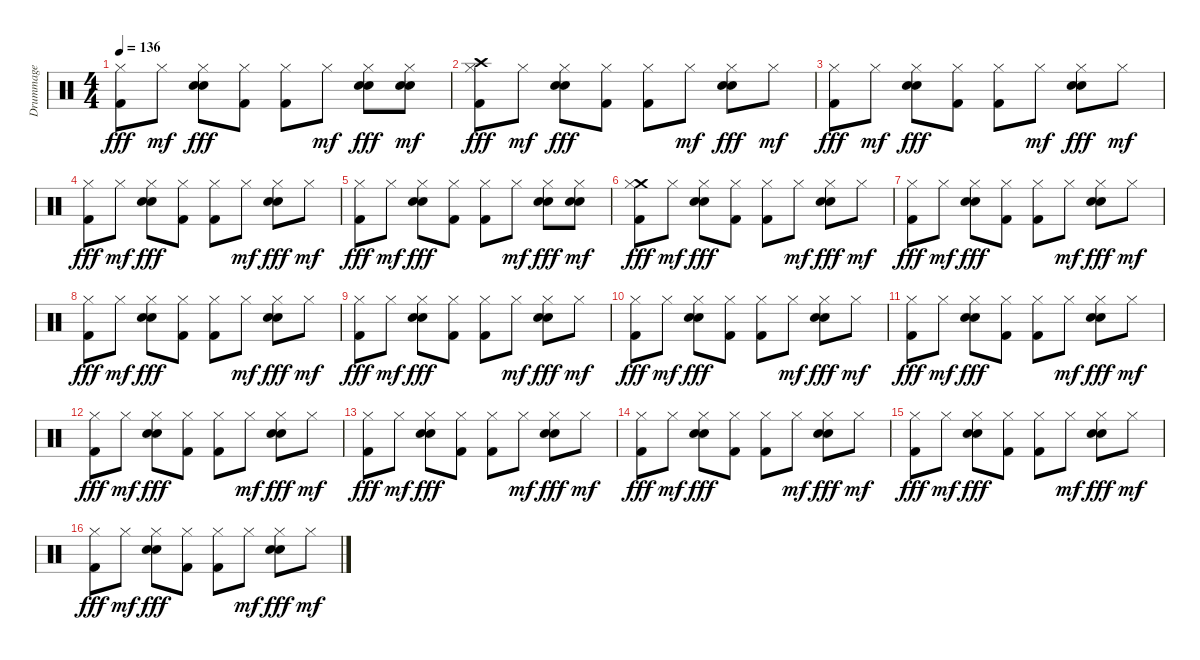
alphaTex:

\track ("Drummage" "Drummage") {instrument percussion}
\staff {score}
\articulation defaults
\ts (4 4)
\tempo 136
\clef neutral
\ks c
("Hi-Hat (closed)" "Kick (hit) 2").8{dy fff} "Hi-Hat (closed)".8{dy mf} ("Hi-Hat (closed)" "Snare (hit) 2" "Electric Snare (hit)").8{dy fff} ("Hi-Hat (closed)" "Kick (hit) 2").8 ("Hi-Hat (closed)" "Kick (hit) 2").8 "Hi-Hat (closed)".8{dy mf} ("Hi-Hat (closed)" "Electric Snare (hit)" "Snare (hit) 2").8{dy fff} ("Snare (hit) 2" "Electric Snare (hit)" "Hi-Hat (closed)").8{dy mf} |
("Crash high (hit)" "Hi-Hat (closed)" "Kick (hit) 2").8{dy fff} "Hi-Hat (closed)".8{dy mf} ("Hi-Hat (closed)" "Snare (hit) 2" "Electric Snare (hit)").8{dy fff} ("Hi-Hat (closed)" "Kick (hit) 2").8 ("Hi-Hat (closed)" "Kick (hit) 2").8 "Hi-Hat (closed)".8{dy mf} ("Hi-Hat (closed)" "Electric Snare (hit)" "Snare (hit) 2").8{dy fff} "Hi-Hat (closed)".8{dy mf} |
("Hi-Hat (closed)" "Kick (hit) 2").8{dy fff} "Hi-Hat (closed)".8{dy mf} ("Hi-Hat (closed)" "Snare (hit) 2" "Electric Snare (hit)").8{dy fff} ("Hi-Hat (closed)" "Kick (hit) 2").8 ("Hi-Hat (closed)" "Kick (hit) 2").8 "Hi-Hat (closed)".8{dy mf} ("Hi-Hat (closed)" "Electric Snare (hit)" "Snare (hit) 2").8{dy fff} "Hi-Hat (closed)".8{dy mf} |
("Hi-Hat (closed)" "Kick (hit) 2").8{dy fff} "Hi-Hat (closed)".8{dy mf} ("Hi-Hat (closed)" "Snare (hit) 2" "Electric Snare (hit)").8{dy fff} ("Hi-Hat (closed)" "Kick (hit) 2").8 ("Hi-Hat (closed)" "Kick (hit) 2").8 "Hi-Hat (closed)".8{dy mf} ("Hi-Hat (closed)" "Electric Snare (hit)" "Snare (hit) 2").8{dy fff} "Hi-Hat (closed)".8{dy mf} |
("Hi-Hat (closed)" "Kick (hit) 2").8{dy fff} "Hi-Hat (closed)".8{dy mf} ("Hi-Hat (closed)" "Snare (hit) 2" "Electric Snare (hit)").8{dy fff} ("Hi-Hat (closed)" "Kick (hit) 2").8 ("Hi-Hat (closed)" "Kick (hit) 2").8 "Hi-Hat (closed)".8{dy mf} ("Hi-Hat (closed)" "Electric Snare (hit)" "Snare (hit) 2").8{dy fff} ("Snare (hit) 2" "Electric Snare (hit)" "Hi-Hat (closed)").8{dy mf} |
("Crash medium (hit)" "Hi-Hat (closed)" "Kick (hit) 2").8{dy fff} "Hi-Hat (closed)".8{dy mf} ("Hi-Hat (closed)" "Snare (hit) 2" "Electric Snare (hit)").8{dy fff} ("Hi-Hat (closed)" "Kick (hit) 2").8 ("Hi-Hat (closed)" "Kick (hit) 2").8 "Hi-Hat (closed)".8{dy mf} ("Hi-Hat (closed)" "Electric Snare (hit)" "Snare (hit) 2").8{dy fff} "Hi-Hat (closed)".8{dy mf} |
("Hi-Hat (closed)" "Kick (hit) 2").8{dy fff} "Hi-Hat (closed)".8{dy mf} ("Hi-Hat (closed)" "Snare (hit) 2" "Electric Snare (hit)").8{dy fff} ("Hi-Hat (closed)" "Kick (hit) 2").8 ("Hi-Hat (closed)" "Kick (hit) 2").8 "Hi-Hat (closed)".8{dy mf} ("Hi-Hat (closed)" "Electric Snare (hit)" "Snare (hit) 2").8{dy fff} "Hi-Hat (closed)".8{dy mf} |
("Hi-Hat (closed)" "Kick (hit) 2").8{dy fff} "Hi-Hat (closed)".8{dy mf} ("Hi-Hat (closed)" "Snare (hit) 2" "Electric Snare (hit)").8{dy fff} ("Hi-Hat (closed)" "Kick (hit) 2").8 ("Hi-Hat (closed)" "Kick (hit) 2").8 "Hi-Hat (closed)".8{dy mf} ("Hi-Hat (closed)" "Electric Snare (hit)" "Snare (hit) 2").8{dy fff} "Hi-Hat (closed)".8{dy mf} |
("Hi-Hat (closed)" "Kick (hit) 2").8{dy fff} "Hi-Hat (closed)".8{dy mf} ("Hi-Hat (closed)" "Snare (hit) 2" "Electric Snare (hit)").8{dy fff} ("Hi-Hat (closed)" "Kick (hit) 2").8 ("Hi-Hat (closed)" "Kick (hit) 2").8 "Hi-Hat (closed)".8{dy mf} ("Hi-Hat (closed)" "Electric Snare (hit)" "Snare (hit) 2").8{dy fff} "Hi-Hat (closed)".8{dy mf} |
("Hi-Hat (closed)" "Kick (hit) 2").8{dy fff} "Hi-Hat (closed)".8{dy mf} ("Hi-Hat (closed)" "Snare (hit) 2" "Electric Snare (hit)").8{dy fff} ("Hi-Hat (closed)" "Kick (hit) 2").8 ("Hi-Hat (closed)" "Kick (hit) 2").8 "Hi-Hat (closed)".8{dy mf} ("Hi-Hat (closed)" "Electric Snare (hit)" "Snare (hit) 2").8{dy fff} "Hi-Hat (closed)".8{dy mf} |
("Hi-Hat (closed)" "Kick (hit) 2").8{dy fff} "Hi-Hat (closed)".8{dy mf} ("Hi-Hat (closed)" "Snare (hit) 2" "Electric Snare (hit)").8{dy fff} ("Hi-Hat (closed)" "Kick (hit) 2").8 ("Hi-Hat (closed)" "Kick (hit) 2").8 "Hi-Hat (closed)".8{dy mf} ("Hi-Hat (closed)" "Electric Snare (hit)" "Snare (hit) 2").8{dy fff} "Hi-Hat (closed)".8{dy mf} |
("Hi-Hat (closed)" "Kick (hit) 2").8{dy fff} "Hi-Hat (closed)".8{dy mf} ("Hi-Hat (closed)" "Snare (hit) 2" "Electric Snare (hit)").8{dy fff} ("Hi-Hat (closed)" "Kick (hit) 2").8 ("Hi-Hat (closed)" "Kick (hit) 2").8 "Hi-Hat (closed)".8{dy mf} ("Hi-Hat (closed)" "Electric Snare (hit)" "Snare (hit) 2").8{dy fff} "Hi-Hat (closed)".8{dy mf} |
("Hi-Hat (closed)" "Kick (hit) 2").8{dy fff} "Hi-Hat (closed)".8{dy mf} ("Hi-Hat (closed)" "Snare (hit) 2" "Electric Snare (hit)").8{dy fff} ("Hi-Hat (closed)" "Kick (hit) 2").8 ("Hi-Hat (closed)" "Kick (hit) 2").8 "Hi-Hat (closed)".8{dy mf} ("Hi-Hat (closed)" "Electric Snare (hit)" "Snare (hit) 2").8{dy fff} "Hi-Hat (closed)".8{dy mf} |
("Hi-Hat (closed)" "Kick (hit) 2").8{dy fff} "Hi-Hat (closed)".8{dy mf} ("Hi-Hat (closed)" "Snare (hit) 2" "Electric Snare (hit)").8{dy fff} ("Hi-Hat (closed)" "Kick (hit) 2").8 ("Hi-Hat (closed)" "Kick (hit) 2").8 "Hi-Hat (closed)".8{dy mf} ("Hi-Hat (closed)" "Electric Snare (hit)" "Snare (hit) 2").8{dy fff} "Hi-Hat (closed)".8{dy mf} |
("Hi-Hat (closed)" "Kick (hit) 2").8{dy fff} "Hi-Hat (closed)".8{dy mf} ("Hi-Hat (closed)" "Snare (hit) 2" "Electric Snare (hit)").8{dy fff} ("Hi-Hat (closed)" "Kick (hit) 2").8 ("Hi-Hat (closed)" "Kick (hit) 2").8 "Hi-Hat (closed)".8{dy mf} ("Hi-Hat (closed)" "Electric Snare (hit)" "Snare (hit) 2").8{dy fff} "Hi-Hat (closed)".8{dy mf} |
("Hi-Hat (closed)" "Kick (hit) 2").8{dy fff} "Hi-Hat (closed)".8{dy mf} ("Hi-Hat (closed)" "Snare (hit) 2" "Electric Snare (hit)").8{dy fff} ("Hi-Hat (closed)" "Kick (hit) 2").8 ("Hi-Hat (closed)" "Kick (hit) 2").8 "Hi-Hat (closed)".8{dy mf} ("Hi-Hat (closed)" "Electric Snare (hit)" "Snare (hit) 2").8{dy fff} "Hi-Hat (closed)".8{dy mf}
